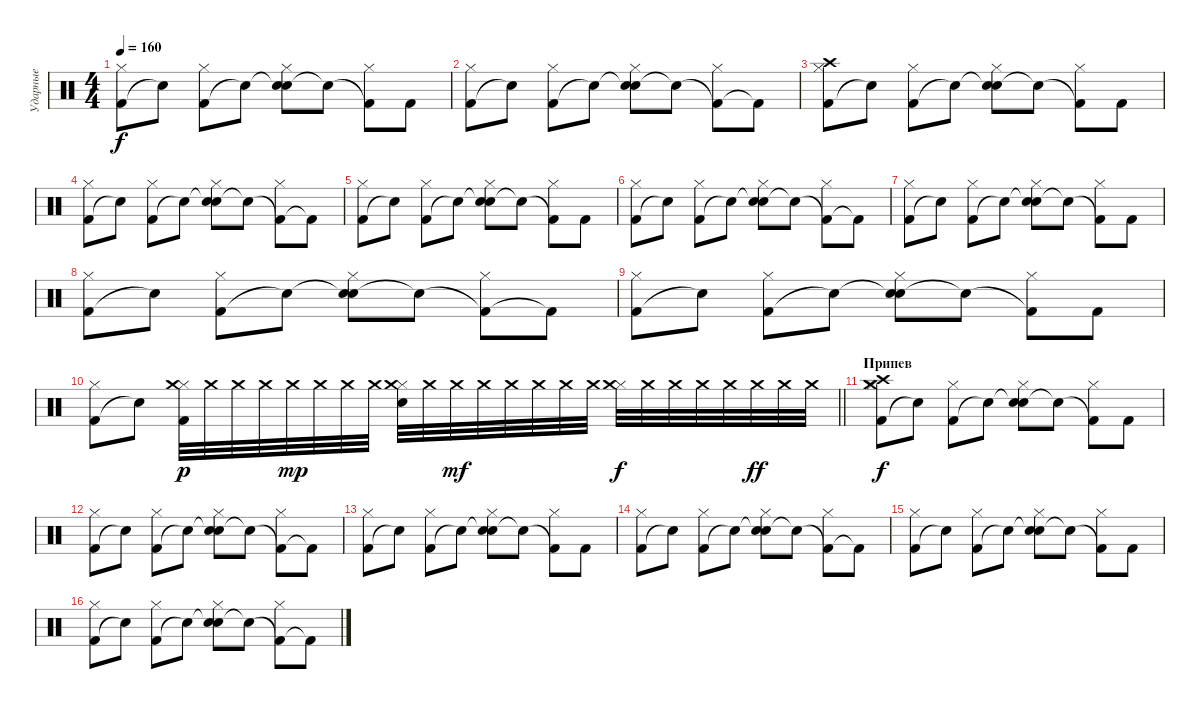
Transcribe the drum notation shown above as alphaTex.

\track ("Ударные" "Ударные") {instrument percussion}
\staff {score}
\articulation defaults
\ts (4 4)
\tempo 160
\clef neutral
\ks c
("Kick (hit) 2" "Hi-Hat (closed)").8{dy f} "Snare (hit)"{t}.8 ("Kick (hit) 2" "Hi-Hat (closed)").8 "Snare (hit)"{t}.8 ("Snare (hit)"{t} "Hi-Hat (closed)" "Snare (hit) 2").8 "Snare (hit)"{t}.8 ("Kick (hit) 2"{t} "Hi-Hat (closed)").8 "Kick (hit) 2".8 |
("Kick (hit) 2" "Hi-Hat (closed)").8 "Snare (hit)"{t}.8 ("Kick (hit) 2" "Hi-Hat (closed)").8 "Snare (hit)"{t}.8 ("Snare (hit)"{t} "Hi-Hat (closed)" "Snare (hit) 2").8 "Snare (hit)"{t}.8 ("Kick (hit) 2"{t} "Hi-Hat (closed)").8 "Kick (hit) 2"{t}.8 |
("Kick (hit) 2" "Hi-Hat (closed)" "Crash high (hit)").8 "Snare (hit)"{t}.8 ("Kick (hit) 2" "Hi-Hat (closed)").8 "Snare (hit)"{t}.8 ("Snare (hit)"{t} "Hi-Hat (closed)" "Snare (hit) 2").8 "Snare (hit)"{t}.8 ("Kick (hit) 2"{t} "Hi-Hat (closed)").8 "Kick (hit) 2".8 |
("Kick (hit) 2" "Hi-Hat (closed)").8 "Snare (hit)"{t}.8 ("Kick (hit) 2" "Hi-Hat (closed)").8 "Snare (hit)"{t}.8 ("Snare (hit)"{t} "Hi-Hat (closed)" "Snare (hit) 2").8 "Snare (hit)"{t}.8 ("Kick (hit) 2"{t} "Hi-Hat (closed)").8 "Kick (hit) 2"{t}.8 |
("Kick (hit) 2" "Hi-Hat (closed)").8 "Snare (hit)"{t}.8 ("Kick (hit) 2" "Hi-Hat (closed)").8 "Snare (hit)"{t}.8 ("Snare (hit)"{t} "Hi-Hat (closed)" "Snare (hit) 2").8 "Snare (hit)"{t}.8 ("Kick (hit) 2"{t} "Hi-Hat (closed)").8 "Kick (hit) 2".8 |
("Kick (hit) 2" "Hi-Hat (closed)").8 "Snare (hit)"{t}.8 ("Kick (hit) 2" "Hi-Hat (closed)").8 "Snare (hit)"{t}.8 ("Snare (hit)"{t} "Hi-Hat (closed)" "Snare (hit) 2").8 "Snare (hit)"{t}.8 ("Kick (hit) 2"{t} "Hi-Hat (closed)").8 "Kick (hit) 2"{t}.8 |
("Kick (hit) 2" "Hi-Hat (closed)").8 "Snare (hit)"{t}.8 ("Kick (hit) 2" "Hi-Hat (closed)").8 "Snare (hit)"{t}.8 ("Snare (hit)"{t} "Hi-Hat (closed)" "Snare (hit) 2").8 "Snare (hit)"{t}.8 ("Kick (hit) 2"{t} "Hi-Hat (closed)").8 "Kick (hit) 2".8 |
("Kick (hit) 2" "Hi-Hat (closed)").8 "Snare (hit)"{t}.8 ("Kick (hit) 2" "Hi-Hat (closed)").8 "Snare (hit)"{t}.8 ("Snare (hit)"{t} "Hi-Hat (closed)" "Snare (hit) 2").8 "Snare (hit)"{t}.8 ("Kick (hit) 2"{t} "Hi-Hat (closed)").8 "Kick (hit) 2"{t}.8 |
("Kick (hit) 2" "Hi-Hat (closed)").8 "Snare (hit)"{t}.8 ("Kick (hit) 2" "Hi-Hat (closed)").8 "Snare (hit)"{t}.8 ("Snare (hit)"{t} "Hi-Hat (closed)" "Snare (hit) 2").8 "Snare (hit)"{t}.8 ("Kick (hit) 2"{t} "Hi-Hat (closed)").8 "Kick (hit) 2".8 |
\barLineRight lightlight
("Kick (hit) 2" "Hi-Hat (closed)").8 "Snare (hit)"{t}.8 ("Kick (hit) 2" "Hi-Hat (closed)" "Crash medium (hit)").32{dy p} "Crash medium (hit)".32 "Crash medium (hit)".32 "Crash medium (hit)".32 "Crash medium (hit)".32{dy mp} "Crash medium (hit)".32 "Crash medium (hit)".32 "Crash medium (hit)".32 ("Hi-Hat (closed)" "Crash medium (hit)" "Snare (hit) 2").32 "Crash medium (hit)".32 "Crash medium (hit)".32{dy mf} "Crash medium (hit)".32 "Crash medium (hit)".32 "Crash medium (hit)".32 "Crash medium (hit)".32 "Crash medium (hit)".32 ("Hi-Hat (closed)" "Crash medium (hit)").32{dy f} "Crash medium (hit)".32 "Crash medium (hit)".32 "Crash medium (hit)".32 "Crash medium (hit)".32 "Crash medium (hit)".32{dy ff} "Crash medium (hit)".32 "Crash medium (hit)".32 |
\section ("" "Припев")
("Kick (hit) 2" "Hi-Hat (closed)" "Crash medium (hit)" "Crash high (hit)").8{dy f} "Snare (hit)"{t}.8 ("Kick (hit) 2" "Hi-Hat (closed)").8 "Snare (hit)"{t}.8 ("Snare (hit)"{t} "Hi-Hat (closed)" "Snare (hit) 2").8 "Snare (hit)"{t}.8 ("Kick (hit) 2"{t} "Hi-Hat (closed)").8 "Kick (hit) 2".8 |
("Kick (hit) 2" "Hi-Hat (closed)").8 "Snare (hit)"{t}.8 ("Kick (hit) 2" "Hi-Hat (closed)").8 "Snare (hit)"{t}.8 ("Snare (hit)"{t} "Hi-Hat (closed)" "Snare (hit) 2").8 "Snare (hit)"{t}.8 ("Kick (hit) 2"{t} "Hi-Hat (closed)").8 "Kick (hit) 2"{t}.8 |
("Kick (hit) 2" "Hi-Hat (closed)").8 "Snare (hit)"{t}.8 ("Kick (hit) 2" "Hi-Hat (closed)").8 "Snare (hit)"{t}.8 ("Snare (hit)"{t} "Hi-Hat (closed)" "Snare (hit) 2").8 "Snare (hit)"{t}.8 ("Kick (hit) 2"{t} "Hi-Hat (closed)").8 "Kick (hit) 2".8 |
("Kick (hit) 2" "Hi-Hat (closed)").8 "Snare (hit)"{t}.8 ("Kick (hit) 2" "Hi-Hat (closed)").8 "Snare (hit)"{t}.8 ("Snare (hit)"{t} "Hi-Hat (closed)" "Snare (hit) 2").8 "Snare (hit)"{t}.8 ("Kick (hit) 2"{t} "Hi-Hat (closed)").8 "Kick (hit) 2"{t}.8 |
("Kick (hit) 2" "Hi-Hat (closed)").8 "Snare (hit)"{t}.8 ("Kick (hit) 2" "Hi-Hat (closed)").8 "Snare (hit)"{t}.8 ("Snare (hit)"{t} "Hi-Hat (closed)" "Snare (hit) 2").8 "Snare (hit)"{t}.8 ("Kick (hit) 2"{t} "Hi-Hat (closed)").8 "Kick (hit) 2".8 |
("Kick (hit) 2" "Hi-Hat (closed)").8 "Snare (hit)"{t}.8 ("Kick (hit) 2" "Hi-Hat (closed)").8 "Snare (hit)"{t}.8 ("Snare (hit)"{t} "Hi-Hat (closed)" "Snare (hit) 2").8 "Snare (hit)"{t}.8 ("Kick (hit) 2"{t} "Hi-Hat (closed)").8 "Kick (hit) 2"{t}.8
